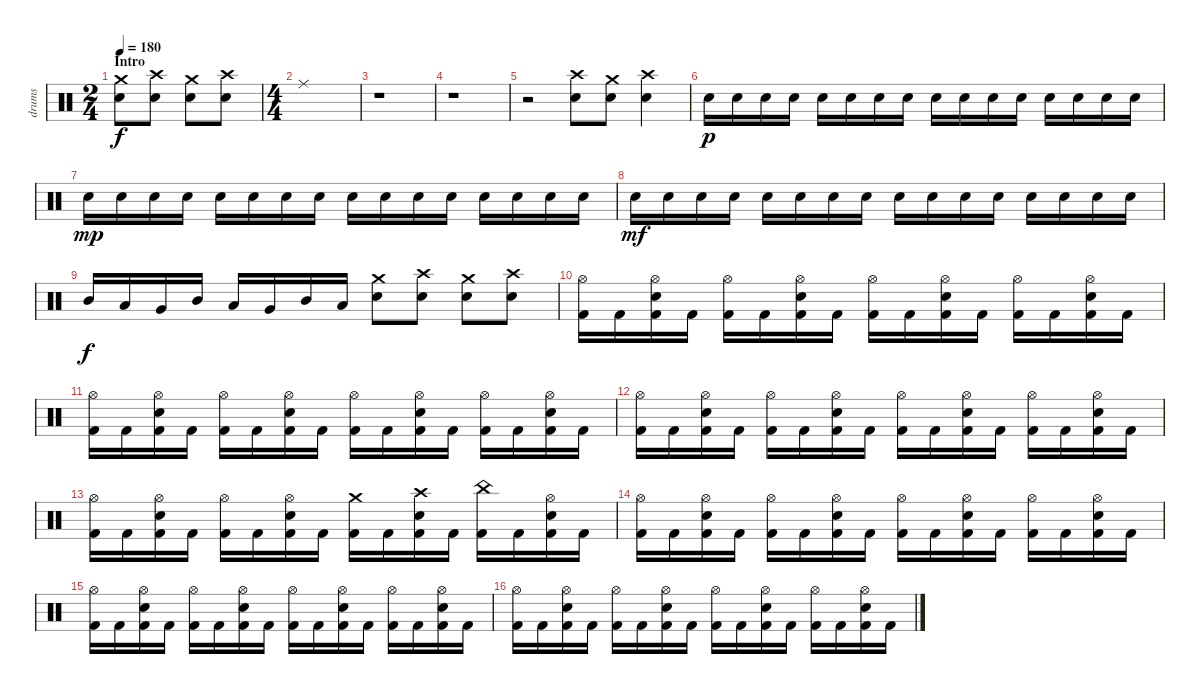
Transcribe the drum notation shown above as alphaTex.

\track ("drums" "drums") {instrument percussion}
\staff {score}
\articulation defaults
\ts (2 4)
\section ("" "Intro")
\tempo 180
\clef neutral
\ks c
("Crash medium (hit)" "Snare (hit) 2").8{dy f} ("Crash high (hit)" "Snare (hit) 2").8 ("Crash medium (hit)" "Snare (hit) 2").8 ("Crash high (hit)" "Snare (hit) 2").8 |
\ts (4 4)
"Ride (middle)".1 |
r.1 |
r.1 |
r.2 ("Crash high (hit)" "Snare (hit) 2").8 ("Crash medium (hit)" "Snare (hit) 2").8 ("Crash high (hit)" "Snare (hit) 2").4 |
"Snare (hit) 2".16{dy p} "Snare (hit) 2".16 "Snare (hit) 2".16 "Snare (hit) 2".16 "Snare (hit) 2".16 "Snare (hit) 2".16 "Snare (hit) 2".16 "Snare (hit) 2".16 "Snare (hit) 2".16 "Snare (hit) 2".16 "Snare (hit) 2".16 "Snare (hit) 2".16 "Snare (hit) 2".16 "Snare (hit) 2".16 "Snare (hit) 2".16 "Snare (hit) 2".16 |
"Snare (hit) 2".16{dy mp} "Snare (hit) 2".16 "Snare (hit) 2".16 "Snare (hit) 2".16 "Snare (hit) 2".16 "Snare (hit) 2".16 "Snare (hit) 2".16 "Snare (hit) 2".16 "Snare (hit) 2".16 "Snare (hit) 2".16 "Snare (hit) 2".16 "Snare (hit) 2".16 "Snare (hit) 2".16 "Snare (hit) 2".16 "Snare (hit) 2".16 "Snare (hit) 2".16 |
"Snare (hit) 2".16{dy mf} "Snare (hit) 2".16 "Snare (hit) 2".16 "Snare (hit) 2".16 "Snare (hit) 2".16 "Snare (hit) 2".16 "Snare (hit) 2".16 "Snare (hit) 2".16 "Snare (hit) 2".16 "Snare (hit) 2".16 "Snare (hit) 2".16 "Snare (hit) 2".16 "Snare (hit) 2".16 "Snare (hit) 2".16 "Snare (hit) 2".16 "Snare (hit) 2".16 |
"Mid Tom (hit)".16{dy f} "Low Tom (hit)".16 "Very Low Tom (hit)".16 "Mid Tom (hit)".16 "Low Tom (hit)".16 "Very Low Tom (hit)".16 "Mid Tom (hit)".16 "Low Tom (hit)".16 ("Crash medium (hit)" "Snare (hit) 2").8 ("Crash high (hit)" "Snare (hit) 2").8 ("Crash medium (hit)" "Snare (hit) 2").8 ("Crash high (hit)" "Snare (hit) 2").8 |
("Hi-Hat (open)" "Kick (hit) 2").16 "Kick (hit) 2".16 ("Hi-Hat (open)" "Snare (hit) 2" "Kick (hit) 2").16 "Kick (hit) 2".16 ("Hi-Hat (open)" "Kick (hit) 2").16 "Kick (hit) 2".16 ("Hi-Hat (open)" "Snare (hit) 2" "Kick (hit) 2").16 "Kick (hit) 2".16 ("Hi-Hat (open)" "Kick (hit) 2").16 "Kick (hit) 2".16 ("Hi-Hat (open)" "Snare (hit) 2" "Kick (hit) 2").16 "Kick (hit) 2".16 ("Hi-Hat (open)" "Kick (hit) 2").16 "Kick (hit) 2".16 ("Hi-Hat (open)" "Snare (hit) 2" "Kick (hit) 2").16 "Kick (hit) 2".16 |
("Hi-Hat (open)" "Kick (hit) 2").16 "Kick (hit) 2".16 ("Hi-Hat (open)" "Snare (hit) 2" "Kick (hit) 2").16 "Kick (hit) 2".16 ("Hi-Hat (open)" "Kick (hit) 2").16 "Kick (hit) 2".16 ("Hi-Hat (open)" "Snare (hit) 2" "Kick (hit) 2").16 "Kick (hit) 2".16 ("Hi-Hat (open)" "Kick (hit) 2").16 "Kick (hit) 2".16 ("Hi-Hat (open)" "Snare (hit) 2" "Kick (hit) 2").16 "Kick (hit) 2".16 ("Hi-Hat (open)" "Kick (hit) 2").16 "Kick (hit) 2".16 ("Hi-Hat (open)" "Snare (hit) 2" "Kick (hit) 2").16 "Kick (hit) 2".16 |
("Hi-Hat (open)" "Kick (hit) 2").16 "Kick (hit) 2".16 ("Hi-Hat (open)" "Snare (hit) 2" "Kick (hit) 2").16 "Kick (hit) 2".16 ("Hi-Hat (open)" "Kick (hit) 2").16 "Kick (hit) 2".16 ("Hi-Hat (open)" "Snare (hit) 2" "Kick (hit) 2").16 "Kick (hit) 2".16 ("Hi-Hat (open)" "Kick (hit) 2").16 "Kick (hit) 2".16 ("Hi-Hat (open)" "Snare (hit) 2" "Kick (hit) 2").16 "Kick (hit) 2".16 ("Hi-Hat (open)" "Kick (hit) 2").16 "Kick (hit) 2".16 ("Hi-Hat (open)" "Snare (hit) 2" "Kick (hit) 2").16 "Kick (hit) 2".16 |
("Hi-Hat (open)" "Kick (hit) 2").16 "Kick (hit) 2".16 ("Hi-Hat (open)" "Snare (hit) 2" "Kick (hit) 2").16 "Kick (hit) 2".16 ("Hi-Hat (open)" "Kick (hit) 2").16 "Kick (hit) 2".16 ("Hi-Hat (open)" "Snare (hit) 2" "Kick (hit) 2").16 "Kick (hit) 2".16 ("Crash medium (hit)" "Kick (hit) 2").16 "Kick (hit) 2".16 ("Crash high (hit)" "Snare (hit) 2" "Kick (hit) 2").16 "Kick (hit) 2".16 ("China (hit)" "Kick (hit) 2").16 "Kick (hit) 2".16 ("Hi-Hat (open)" "Snare (hit) 2" "Kick (hit) 2").16 "Kick (hit) 2".16 |
("Hi-Hat (open)" "Kick (hit) 2").16 "Kick (hit) 2".16 ("Hi-Hat (open)" "Snare (hit) 2" "Kick (hit) 2").16 "Kick (hit) 2".16 ("Hi-Hat (open)" "Kick (hit) 2").16 "Kick (hit) 2".16 ("Hi-Hat (open)" "Snare (hit) 2" "Kick (hit) 2").16 "Kick (hit) 2".16 ("Hi-Hat (open)" "Kick (hit) 2").16 "Kick (hit) 2".16 ("Hi-Hat (open)" "Snare (hit) 2" "Kick (hit) 2").16 "Kick (hit) 2".16 ("Hi-Hat (open)" "Kick (hit) 2").16 "Kick (hit) 2".16 ("Hi-Hat (open)" "Snare (hit) 2" "Kick (hit) 2").16 "Kick (hit) 2".16 |
("Hi-Hat (open)" "Kick (hit) 2").16 "Kick (hit) 2".16 ("Hi-Hat (open)" "Snare (hit) 2" "Kick (hit) 2").16 "Kick (hit) 2".16 ("Hi-Hat (open)" "Kick (hit) 2").16 "Kick (hit) 2".16 ("Hi-Hat (open)" "Snare (hit) 2" "Kick (hit) 2").16 "Kick (hit) 2".16 ("Hi-Hat (open)" "Kick (hit) 2").16 "Kick (hit) 2".16 ("Hi-Hat (open)" "Snare (hit) 2" "Kick (hit) 2").16 "Kick (hit) 2".16 ("Hi-Hat (open)" "Kick (hit) 2").16 "Kick (hit) 2".16 ("Hi-Hat (open)" "Snare (hit) 2" "Kick (hit) 2").16 "Kick (hit) 2".16 |
("Hi-Hat (open)" "Kick (hit) 2").16 "Kick (hit) 2".16 ("Hi-Hat (open)" "Snare (hit) 2" "Kick (hit) 2").16 "Kick (hit) 2".16 ("Hi-Hat (open)" "Kick (hit) 2").16 "Kick (hit) 2".16 ("Hi-Hat (open)" "Snare (hit) 2" "Kick (hit) 2").16 "Kick (hit) 2".16 ("Hi-Hat (open)" "Kick (hit) 2").16 "Kick (hit) 2".16 ("Hi-Hat (open)" "Snare (hit) 2" "Kick (hit) 2").16 "Kick (hit) 2".16 ("Hi-Hat (open)" "Kick (hit) 2").16 "Kick (hit) 2".16 ("Hi-Hat (open)" "Snare (hit) 2" "Kick (hit) 2").16 "Kick (hit) 2".16
